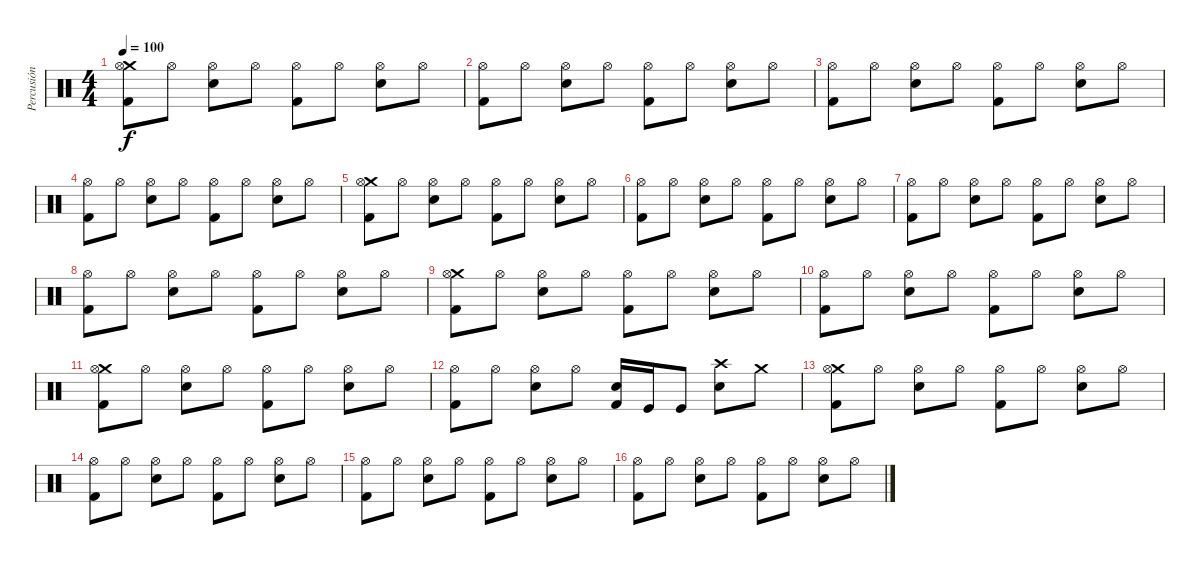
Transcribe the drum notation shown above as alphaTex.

\track ("Percusión" "Percusión") {instrument percussion}
\staff {score}
\articulation defaults
\ts (4 4)
\tempo 100
\clef neutral
\ks c
("Crash medium (hit)" "Hi-Hat (open)" "Kick (hit) 2").8{dy f} "Hi-Hat (open)".8 ("Hi-Hat (open)" "Snare (hit) 2").8 "Hi-Hat (open)".8 ("Hi-Hat (open)" "Kick (hit) 2").8 "Hi-Hat (open)".8 ("Hi-Hat (open)" "Snare (hit) 2").8 "Hi-Hat (open)".8 |
("Hi-Hat (open)" "Kick (hit) 2").8 "Hi-Hat (open)".8 ("Hi-Hat (open)" "Snare (hit) 2").8 "Hi-Hat (open)".8 ("Hi-Hat (open)" "Kick (hit) 2").8 "Hi-Hat (open)".8 ("Hi-Hat (open)" "Snare (hit) 2").8 "Hi-Hat (open)".8 |
("Hi-Hat (open)" "Kick (hit) 2").8 "Hi-Hat (open)".8 ("Hi-Hat (open)" "Snare (hit) 2").8 "Hi-Hat (open)".8 ("Hi-Hat (open)" "Kick (hit) 2").8 "Hi-Hat (open)".8 ("Hi-Hat (open)" "Snare (hit) 2").8 "Hi-Hat (open)".8 |
("Hi-Hat (open)" "Kick (hit) 2").8 "Hi-Hat (open)".8 ("Hi-Hat (open)" "Snare (hit) 2").8 "Hi-Hat (open)".8 ("Hi-Hat (open)" "Kick (hit) 2").8 "Hi-Hat (open)".8 ("Hi-Hat (open)" "Snare (hit) 2").8 "Hi-Hat (open)".8 |
("Crash medium (hit)" "Hi-Hat (open)" "Kick (hit) 2").8 "Hi-Hat (open)".8 ("Hi-Hat (open)" "Snare (hit) 2").8 "Hi-Hat (open)".8 ("Hi-Hat (open)" "Kick (hit) 2").8 "Hi-Hat (open)".8 ("Hi-Hat (open)" "Snare (hit) 2").8 "Hi-Hat (open)".8 |
("Hi-Hat (open)" "Kick (hit) 2").8 "Hi-Hat (open)".8 ("Hi-Hat (open)" "Snare (hit) 2").8 "Hi-Hat (open)".8 ("Hi-Hat (open)" "Kick (hit) 2").8 "Hi-Hat (open)".8 ("Hi-Hat (open)" "Snare (hit) 2").8 "Hi-Hat (open)".8 |
("Hi-Hat (open)" "Kick (hit) 2").8 "Hi-Hat (open)".8 ("Hi-Hat (open)" "Snare (hit) 2").8 "Hi-Hat (open)".8 ("Hi-Hat (open)" "Kick (hit) 2").8 "Hi-Hat (open)".8 ("Hi-Hat (open)" "Snare (hit) 2").8 "Hi-Hat (open)".8 |
("Hi-Hat (open)" "Kick (hit) 2").8 "Hi-Hat (open)".8 ("Hi-Hat (open)" "Snare (hit) 2").8 "Hi-Hat (open)".8 ("Hi-Hat (open)" "Kick (hit) 2").8 "Hi-Hat (open)".8 ("Hi-Hat (open)" "Snare (hit) 2").8 "Hi-Hat (open)".8 |
("Crash medium (hit)" "Hi-Hat (open)" "Kick (hit) 2").8 "Hi-Hat (open)".8 ("Hi-Hat (open)" "Snare (hit) 2").8 "Hi-Hat (open)".8 ("Hi-Hat (open)" "Kick (hit) 2").8 "Hi-Hat (open)".8 ("Hi-Hat (open)" "Snare (hit) 2").8 "Hi-Hat (open)".8 |
("Hi-Hat (open)" "Kick (hit) 2").8 "Hi-Hat (open)".8 ("Hi-Hat (open)" "Snare (hit) 2").8 "Hi-Hat (open)".8 ("Hi-Hat (open)" "Kick (hit) 2").8 "Hi-Hat (open)".8 ("Hi-Hat (open)" "Snare (hit) 2").8 "Hi-Hat (open)".8 |
("Crash medium (hit)" "Hi-Hat (open)" "Kick (hit) 2").8 "Hi-Hat (open)".8 ("Hi-Hat (open)" "Snare (hit) 2").8 "Hi-Hat (open)".8 ("Hi-Hat (open)" "Kick (hit) 2").8 "Hi-Hat (open)".8 ("Hi-Hat (open)" "Snare (hit) 2").8 "Hi-Hat (open)".8 |
("Hi-Hat (open)" "Kick (hit) 2").8 "Hi-Hat (open)".8 ("Hi-Hat (open)" "Snare (hit) 2").8 "Hi-Hat (open)".8 ("Snare (hit) 2" "Kick (hit) 2").16 "Kick (hit)".16 "Kick (hit)".8 ("Crash high (hit)" "Snare (hit) 2").8 "Crash medium (hit)".8 |
("Crash medium (hit)" "Hi-Hat (open)" "Kick (hit) 2").8 "Hi-Hat (open)".8 ("Hi-Hat (open)" "Snare (hit) 2").8 "Hi-Hat (open)".8 ("Hi-Hat (open)" "Kick (hit) 2").8 "Hi-Hat (open)".8 ("Hi-Hat (open)" "Snare (hit) 2").8 "Hi-Hat (open)".8 |
("Hi-Hat (open)" "Kick (hit) 2").8 "Hi-Hat (open)".8 ("Hi-Hat (open)" "Snare (hit) 2").8 "Hi-Hat (open)".8 ("Hi-Hat (open)" "Kick (hit) 2").8 "Hi-Hat (open)".8 ("Hi-Hat (open)" "Snare (hit) 2").8 "Hi-Hat (open)".8 |
("Hi-Hat (open)" "Kick (hit) 2").8 "Hi-Hat (open)".8 ("Hi-Hat (open)" "Snare (hit) 2").8 "Hi-Hat (open)".8 ("Hi-Hat (open)" "Kick (hit) 2").8 "Hi-Hat (open)".8 ("Hi-Hat (open)" "Snare (hit) 2").8 "Hi-Hat (open)".8 |
("Hi-Hat (open)" "Kick (hit) 2").8 "Hi-Hat (open)".8 ("Hi-Hat (open)" "Snare (hit) 2").8 "Hi-Hat (open)".8 ("Hi-Hat (open)" "Kick (hit) 2").8 "Hi-Hat (open)".8 ("Hi-Hat (open)" "Snare (hit) 2").8 "Hi-Hat (open)".8
